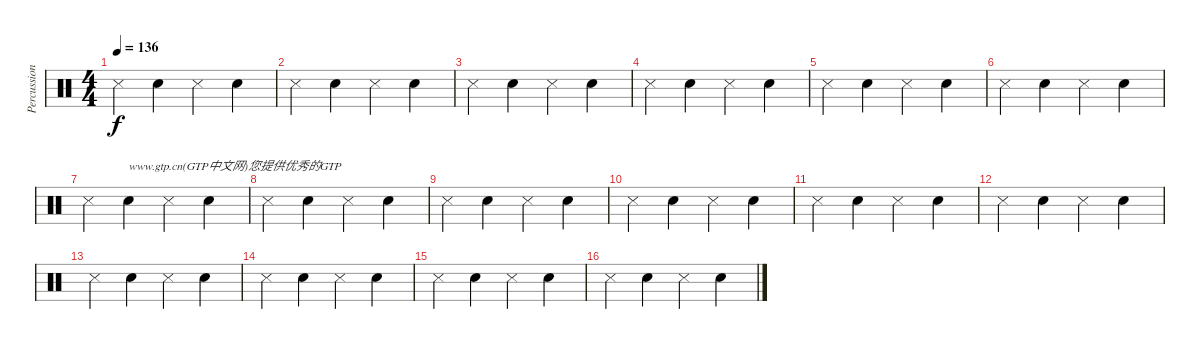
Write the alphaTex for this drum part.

\track ("Percussions" "Percussion") {instrument percussion}
\staff {score}
\articulation defaults
\ts (4 4)
\tempo 136
\clef neutral
\ks c "Snare (side stick) 3".4{dy f} "Electric Snare (hit)".4 "Snare (side stick) 3".4 "Electric Snare (hit)".4
|
"Snare (side stick) 3".4 "Electric Snare (hit)".4 "Snare (side stick) 3".4 "Electric Snare (hit)".4 |
"Snare (side stick) 3".4 "Electric Snare (hit)".4 "Snare (side stick) 3".4 "Electric Snare (hit)".4 |
"Snare (side stick) 3".4 "Electric Snare (hit)".4 "Snare (side stick) 3".4 "Electric Snare (hit)".4 |
"Snare (side stick) 3".4 "Electric Snare (hit)".4 "Snare (side stick) 3".4 "Electric Snare (hit)".4 |
"Snare (side stick) 3".4 "Electric Snare (hit)".4 "Snare (side stick) 3".4 "Electric Snare (hit)".4 |
"Snare (side stick) 3".4 "Electric Snare (hit)".4{txt "www.gtp.cn(GTP中文网)您提供优秀的GTP"} "Snare (side stick) 3".4 "Electric Snare (hit)".4 |
"Snare (side stick) 3".4 "Electric Snare (hit)".4 "Snare (side stick) 3".4 "Electric Snare (hit)".4 |
"Snare (side stick) 3".4 "Electric Snare (hit)".4 "Snare (side stick) 3".4 "Electric Snare (hit)".4 |
"Snare (side stick) 3".4 "Electric Snare (hit)".4 "Snare (side stick) 3".4 "Electric Snare (hit)".4 |
"Snare (side stick) 3".4 "Electric Snare (hit)".4 "Snare (side stick) 3".4 "Electric Snare (hit)".4 |
"Snare (side stick) 3".4 "Electric Snare (hit)".4 "Snare (side stick) 3".4 "Electric Snare (hit)".4 |
"Snare (side stick) 3".4 "Electric Snare (hit)".4 "Snare (side stick) 3".4 "Electric Snare (hit)".4 |
"Snare (side stick) 3".4 "Electric Snare (hit)".4 "Snare (side stick) 3".4 "Electric Snare (hit)".4 |
"Snare (side stick) 3".4 "Electric Snare (hit)".4 "Snare (side stick) 3".4 "Electric Snare (hit)".4 |
"Snare (side stick) 3".4 "Electric Snare (hit)".4 "Snare (side stick) 3".4 "Electric Snare (hit)".4
